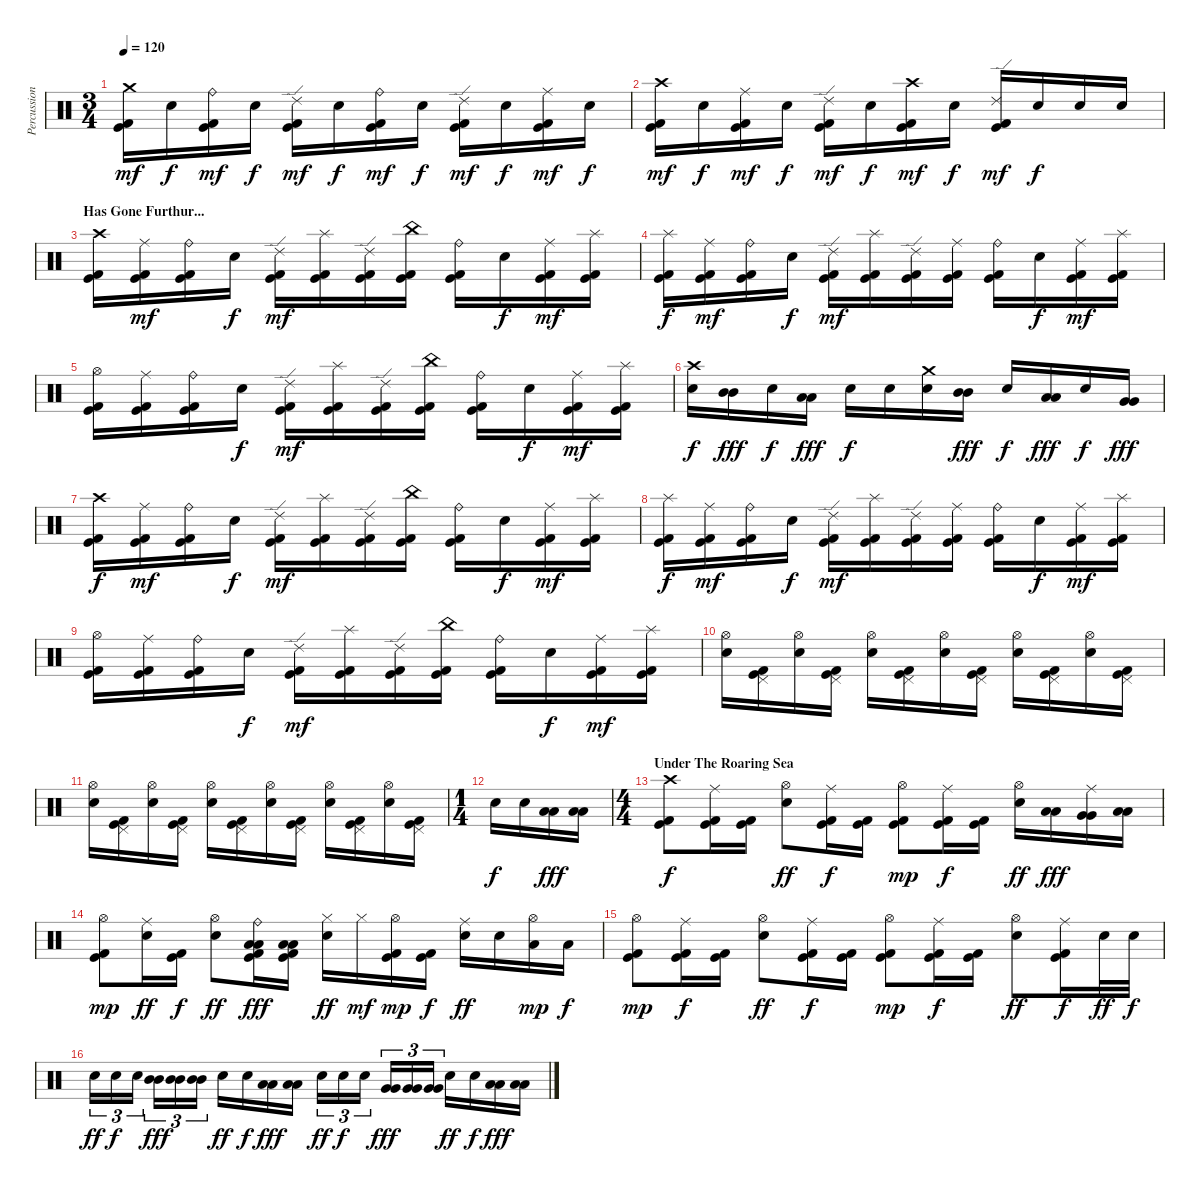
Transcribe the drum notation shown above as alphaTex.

\track ("Percussion" "Percussion") {instrument percussion}
\staff {score}
\articulation defaults
\ts (3 4)
\tempo 120
\clef neutral
\ks c
("Crash medium (hit)" "Kick (hit)" "Kick (hit) 2").16{dy mf} "Snare (hit) 2".16{dy f} ("Ride (bell)" "Kick (hit)" "Kick (hit) 2").16{dy mf} "Snare (hit) 2".16{dy f} ("Ride (edge) 2" "Kick (hit)" "Kick (hit) 2").16{dy mf} "Snare (hit) 2".16{dy f} ("Ride (bell)" "Kick (hit)" "Kick (hit) 2").16{dy mf} "Snare (hit) 2".16{dy f} ("Ride (edge) 2" "Kick (hit)" "Kick (hit) 2").16{dy mf} "Snare (hit) 2".16{dy f} ("Ride (middle)" "Kick (hit)" "Kick (hit) 2").16{dy mf} "Snare (hit) 2".16{dy f} |
("Crash high (hit)" "Kick (hit)" "Kick (hit) 2").16{dy mf} "Snare (hit) 2".16{dy f} ("Ride (middle)" "Kick (hit)" "Kick (hit) 2").16{dy mf} "Snare (hit) 2".16{dy f} ("Ride (edge) 2" "Kick (hit)" "Kick (hit) 2").16{dy mf} "Snare (hit) 2".16{dy f} ("Crash high (hit)" "Kick (hit)" "Kick (hit) 2").16{dy mf} "Snare (hit) 2".16{dy f} ("Ride (edge) 2" "Kick (hit)" "Kick (hit) 2").16{dy mf} "Snare (hit) 2".16{dy f} "Snare (hit) 2".16 "Snare (hit) 2".16 |
\section ("" "Has Gone Furthur...")
("Crash high (hit)" "Kick (hit)" "Kick (hit) 2").16{volume 14} ("Ride (middle)" "Kick (hit)" "Kick (hit) 2").16{dy mf} ("Ride (bell)" "Kick (hit)" "Kick (hit) 2").16 "Snare (hit) 2".16{dy f} ("Ride (edge) 2" "Kick (hit)" "Kick (hit) 2").16{dy mf} ("Splash (hit)" "Kick (hit)" "Kick (hit) 2").16 ("Ride (edge) 2" "Kick (hit)" "Kick (hit) 2").16 ("China (hit)" "Kick (hit)" "Kick (hit) 2").16 ("Ride (bell)" "Kick (hit)" "Kick (hit) 2").16 "Snare (hit) 2".16{dy f} ("Ride (middle)" "Kick (hit)" "Kick (hit) 2").16{dy mf} ("Splash (hit)" "Kick (hit)" "Kick (hit) 2").16 |
("Splash (hit)" "Kick (hit)" "Kick (hit) 2").16{dy f} ("Ride (middle)" "Kick (hit)" "Kick (hit) 2").16{dy mf} ("Ride (bell)" "Kick (hit)" "Kick (hit) 2").16 "Snare (hit) 2".16{dy f} ("Ride (edge) 2" "Kick (hit)" "Kick (hit) 2").16{dy mf} ("Splash (hit)" "Kick (hit)" "Kick (hit) 2").16 ("Ride (edge) 2" "Kick (hit)" "Kick (hit) 2").16 ("Ride (middle)" "Kick (hit)" "Kick (hit) 2").16 ("Ride (bell)" "Kick (hit)" "Kick (hit) 2").16 "Snare (hit) 2".16{dy f} ("Ride (middle)" "Kick (hit)" "Kick (hit) 2").16{dy mf} ("Splash (hit)" "Kick (hit)" "Kick (hit) 2").16 |
("Hi-Hat (open)" "Kick (hit)" "Kick (hit) 2").16 ("Ride (middle)" "Kick (hit)" "Kick (hit) 2").16 ("Ride (bell)" "Kick (hit)" "Kick (hit) 2").16 "Snare (hit) 2".16{dy f} ("Ride (edge) 2" "Kick (hit)" "Kick (hit) 2").16{dy mf} ("Splash (hit)" "Kick (hit)" "Kick (hit) 2").16 ("Ride (edge) 2" "Kick (hit)" "Kick (hit) 2").16 ("China (hit)" "Kick (hit)" "Kick (hit) 2").16 ("Ride (bell)" "Kick (hit)" "Kick (hit) 2").16 "Snare (hit) 2".16{dy f} ("Ride (middle)" "Kick (hit)" "Kick (hit) 2").16{dy mf} ("Splash (hit)" "Kick (hit)" "Kick (hit) 2").16 |
("Crash high (hit)" "Snare (hit) 2").16{dy f} ("Mid Tom (hit)" "Mid Tom (hit)").16{dy fff} "Snare (hit) 2".16{dy f} ("Low Tom (hit)" "Low Tom (hit)").16{dy fff} "Snare (hit) 2".16{dy f} "Snare (hit) 2".16 ("Crash medium (hit)" "Snare (hit) 2").16 ("Mid Tom (hit)" "Mid Tom (hit)").16{dy fff} "Snare (hit) 2".16{dy f} ("Low Tom (hit)" "Low Tom (hit)").16{dy fff} "Snare (hit) 2".16{dy f} ("Very Low Tom (hit)" "Very Low Tom (hit)").16{dy fff} |
("Crash high (hit)" "Kick (hit)" "Kick (hit) 2").16{dy f} ("Ride (middle)" "Kick (hit)" "Kick (hit) 2").16{dy mf} ("Ride (bell)" "Kick (hit)" "Kick (hit) 2").16 "Snare (hit) 2".16{dy f} ("Ride (edge) 2" "Kick (hit)" "Kick (hit) 2").16{dy mf} ("Splash (hit)" "Kick (hit)" "Kick (hit) 2").16 ("Ride (edge) 2" "Kick (hit)" "Kick (hit) 2").16 ("China (hit)" "Kick (hit)" "Kick (hit) 2").16 ("Ride (bell)" "Kick (hit)" "Kick (hit) 2").16 "Snare (hit) 2".16{dy f} ("Ride (middle)" "Kick (hit)" "Kick (hit) 2").16{dy mf} ("Splash (hit)" "Kick (hit)" "Kick (hit) 2").16 |
("Splash (hit)" "Kick (hit)" "Kick (hit) 2").16{dy f} ("Ride (middle)" "Kick (hit)" "Kick (hit) 2").16{dy mf} ("Ride (bell)" "Kick (hit)" "Kick (hit) 2").16 "Snare (hit) 2".16{dy f} ("Ride (edge) 2" "Kick (hit)" "Kick (hit) 2").16{dy mf} ("Splash (hit)" "Kick (hit)" "Kick (hit) 2").16 ("Ride (edge) 2" "Kick (hit)" "Kick (hit) 2").16 ("Ride (middle)" "Kick (hit)" "Kick (hit) 2").16 ("Ride (bell)" "Kick (hit)" "Kick (hit) 2").16 "Snare (hit) 2".16{dy f} ("Ride (middle)" "Kick (hit)" "Kick (hit) 2").16{dy mf} ("Splash (hit)" "Kick (hit)" "Kick (hit) 2").16 |
("Hi-Hat (open)" "Kick (hit)" "Kick (hit) 2").16 ("Ride (middle)" "Kick (hit)" "Kick (hit) 2").16 ("Ride (bell)" "Kick (hit)" "Kick (hit) 2").16 "Snare (hit) 2".16{dy f} ("Ride (edge) 2" "Kick (hit)" "Kick (hit) 2").16{dy mf} ("Splash (hit)" "Kick (hit)" "Kick (hit) 2").16 ("Ride (edge) 2" "Kick (hit)" "Kick (hit) 2").16 ("China (hit)" "Kick (hit)" "Kick (hit) 2").16 ("Ride (bell)" "Kick (hit)" "Kick (hit) 2").16 "Snare (hit) 2".16{dy f} ("Ride (middle)" "Kick (hit)" "Kick (hit) 2").16{dy mf} ("Splash (hit)" "Kick (hit)" "Kick (hit) 2").16 |
("Hi-Hat (open)" "Snare (hit) 2").16 ("Pedal Hi-Hat (hit)" "Kick (hit)" "Kick (hit) 2").16 ("Hi-Hat (open)" "Snare (hit) 2").16 ("Pedal Hi-Hat (hit)" "Kick (hit)" "Kick (hit) 2").16 ("Hi-Hat (open)" "Snare (hit) 2").16 ("Pedal Hi-Hat (hit)" "Kick (hit)" "Kick (hit) 2").16 ("Hi-Hat (open)" "Snare (hit) 2").16 ("Pedal Hi-Hat (hit)" "Kick (hit)" "Kick (hit) 2").16 ("Hi-Hat (open)" "Snare (hit) 2").16 ("Pedal Hi-Hat (hit)" "Kick (hit)" "Kick (hit) 2").16 ("Hi-Hat (open)" "Snare (hit) 2").16 ("Pedal Hi-Hat (hit)" "Kick (hit)" "Kick (hit) 2").16 |
("Hi-Hat (open)" "Snare (hit) 2").16 ("Pedal Hi-Hat (hit)" "Kick (hit)" "Kick (hit) 2").16 ("Hi-Hat (open)" "Snare (hit) 2").16 ("Pedal Hi-Hat (hit)" "Kick (hit)" "Kick (hit) 2").16 ("Hi-Hat (open)" "Snare (hit) 2").16 ("Pedal Hi-Hat (hit)" "Kick (hit)" "Kick (hit) 2").16 ("Hi-Hat (open)" "Snare (hit) 2").16 ("Pedal Hi-Hat (hit)" "Kick (hit)" "Kick (hit) 2").16 ("Hi-Hat (open)" "Snare (hit) 2").16 ("Pedal Hi-Hat (hit)" "Kick (hit)" "Kick (hit) 2").16 ("Hi-Hat (open)" "Snare (hit) 2").16 ("Pedal Hi-Hat (hit)" "Kick (hit)" "Kick (hit) 2").16 |
\ts (1 4)
"Snare (hit) 2".16{dy f} "Snare (hit) 2".16 ("Low Tom (hit)" "Low Tom (hit)").16{dy fff} ("Low Tom (hit)" "Low Tom (hit)").16 |
\ts (4 4)
\section ("" "Under The Roaring Sea")
("Crash high (hit)" "Kick (hit)" "Kick (hit) 2").8{dy f} ("Ride (middle)" "Kick (hit)" "Kick (hit) 2").16 ("Kick (hit)" "Kick (hit) 2").16 ("Hi-Hat (open)" "Snare (hit) 2").8{dy ff} ("Ride (middle)" "Kick (hit)" "Kick (hit) 2").16{dy f} ("Kick (hit)" "Kick (hit) 2").16 ("Hi-Hat (open)" "Kick (hit)" "Kick (hit) 2").8{dy mp} ("Ride (middle)" "Kick (hit)" "Kick (hit) 2").16{dy f} ("Kick (hit)" "Kick (hit) 2").16 ("Hi-Hat (open)" "Snare (hit) 2").16{dy ff} ("Low Tom (hit)" "Low Tom (hit)").16{dy fff} ("Ride (middle)" "Very Low Tom (hit)" "Very Low Tom (hit)").16 ("Low Floor Tom (hit)" "Low Floor Tom (hit)").16 |
("Hi-Hat (open)" "Kick (hit)" "Kick (hit) 2").8{dy mp} ("Ride (middle)" "Snare (hit) 2").16{dy ff} ("Kick (hit)" "Kick (hit) 2").16{dy f} ("Hi-Hat (open)" "Snare (hit) 2").8{dy ff} ("Ride (bell)" "Low Tom (hit)" "Low Tom (hit)" "Kick (hit)" "Kick (hit) 2").16{dy fff} ("Low Tom (hit)" "Low Tom (hit)" "Kick (hit)" "Kick (hit) 2").16 ("Hi-Hat (closed)" "Snare (hit) 2").16{dy ff} "Hi-Hat (closed)".16{dy mf} ("Hi-Hat (open)" "Kick (hit)" "Kick (hit) 2").16{dy mp} ("Kick (hit)" "Kick (hit) 2").16{dy f} ("Ride (middle)" "Snare (hit) 2").16{dy ff} "Snare (hit) 2".16 ("Hi-Hat (open)" "Low Tom (hit)").16{dy mp} "Low Tom (hit)".16{dy f} |
("Hi-Hat (open)" "Kick (hit)" "Kick (hit) 2").8{dy mp} ("Ride (middle)" "Kick (hit)" "Kick (hit) 2").16{dy f} ("Kick (hit)" "Kick (hit) 2").16 ("Hi-Hat (open)" "Snare (hit) 2").8{dy ff} ("Ride (middle)" "Kick (hit)" "Kick (hit) 2").16{dy f} ("Kick (hit)" "Kick (hit) 2").16 ("Hi-Hat (open)" "Kick (hit)" "Kick (hit) 2").8{dy mp} ("Ride (middle)" "Kick (hit)" "Kick (hit) 2").16{dy f} ("Kick (hit)" "Kick (hit) 2").16 ("Hi-Hat (open)" "Snare (hit) 2").8{dy ff} ("Ride (middle)" "Kick (hit)" "Kick (hit) 2").16{dy f} "Snare (hit) 2".32{dy ff} "Snare (hit) 2".32{dy f} |
"Snare (hit) 2".16{tu (3 2) dy ff} "Snare (hit) 2".16{tu (3 2) dy f} "Snare (hit) 2".16{tu (3 2)} ("Mid Tom (hit)" "Mid Tom (hit)").16{tu (3 2) dy fff} ("Mid Tom (hit)" "Mid Tom (hit)").16{tu (3 2)} ("Mid Tom (hit)" "Mid Tom (hit)").16{tu (3 2)} "Snare (hit) 2".16{dy ff} "Snare (hit) 2".16{dy f} ("Low Tom (hit)" "Low Tom (hit)").16{dy fff} ("Low Tom (hit)" "Low Tom (hit)").16 "Snare (hit) 2".16{tu (3 2) dy ff} "Snare (hit) 2".16{tu (3 2) dy f} "Snare (hit) 2".16{tu (3 2)} ("Very Low Tom (hit)" "Very Low Tom (hit)").16{tu (3 2) dy fff} ("Very Low Tom (hit)" "Very Low Tom (hit)").16{tu (3 2)} ("Very Low Tom (hit)" "Very Low Tom (hit)").16{tu (3 2)} "Snare (hit) 2".16{dy ff} "Snare (hit) 2".16{dy f} ("Low Floor Tom (hit)" "Low Floor Tom (hit)").16{dy fff} ("Low Floor Tom (hit)" "Low Floor Tom (hit)").16
